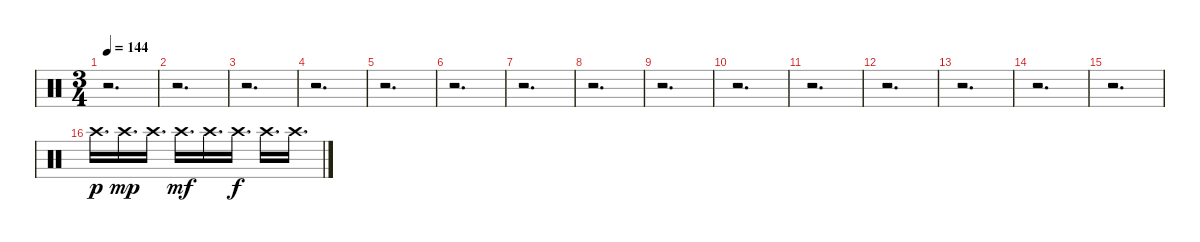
\track "" {instrument percussion}
\staff {score}
\articulation defaults
\ts (3 4)
\tempo 144
\clef neutral
\ks c
r.2{d dy p} |
r.2{d} |
r.2{d} |
r.2{d} |
r.2{d} |
r.2{d} |
r.2{d} |
r.2{d} |
r.2{d} |
r.2{d} |
r.2{d} |
r.2{d} |
r.2{d} |
r.2{d} |
r.2{d} |
"Crash high (hit)".16{d} "Crash high (hit)".16{d dy mp} "Crash high (hit)".16{d} "Crash high (hit)".16{d dy mf} "Crash high (hit)".16{d} "Crash high (hit)".16{d dy f} "Crash high (hit)".16{d} "Crash high (hit)".16{d}
